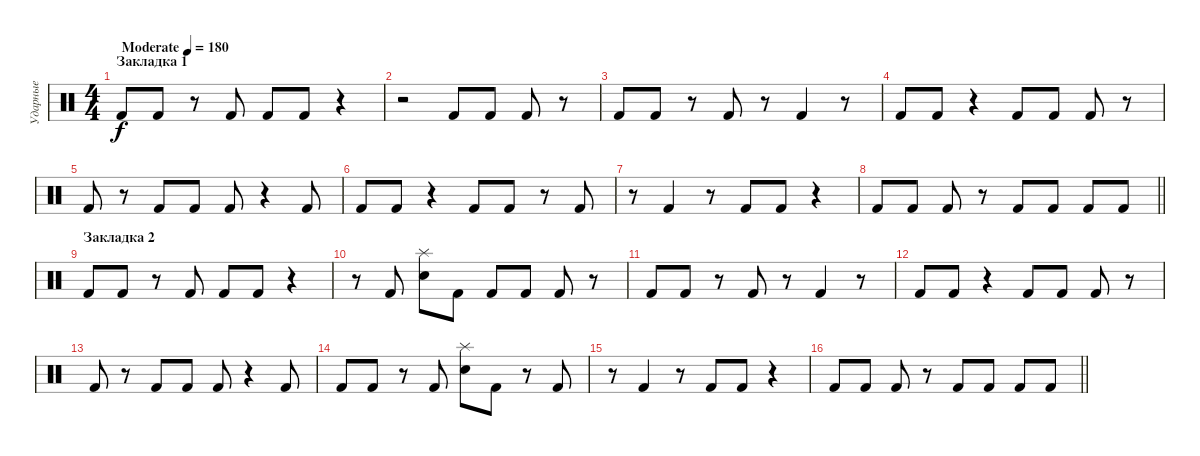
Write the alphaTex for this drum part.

\track ("Ударные" "Ударные") {instrument percussion}
\staff {score}
\articulation defaults
\ts (4 4)
\section ("" "Закладка 1")
\tempo (180 "Moderate")
\clef neutral
\ks c "Kick (hit) 2".8{dy f} "Kick (hit) 2".8
r.8 "Kick (hit) 2".8 "Kick (hit) 2".8 "Kick (hit) 2".8 r.4 |
r.2 "Kick (hit) 2".8 "Kick (hit) 2".8 "Kick (hit) 2".8 r.8 |
"Kick (hit) 2".8 "Kick (hit) 2".8 r.8 "Kick (hit) 2".8 r.8 "Kick (hit) 2".4 r.8 |
"Kick (hit) 2".8 "Kick (hit) 2".8 r.4 "Kick (hit) 2".8 "Kick (hit) 2".8 "Kick (hit) 2".8 r.8 |
"Kick (hit) 2".8 r.8 "Kick (hit) 2".8 "Kick (hit) 2".8 "Kick (hit) 2".8 r.4 "Kick (hit) 2".8 |
"Kick (hit) 2".8 "Kick (hit) 2".8 r.4 "Kick (hit) 2".8 "Kick (hit) 2".8 r.8 "Kick (hit) 2".8 |
r.8 "Kick (hit) 2".4 r.8 "Kick (hit) 2".8 "Kick (hit) 2".8 r.4 |
\barLineRight lightlight "Kick (hit) 2".8 "Kick (hit) 2".8 "Kick (hit) 2".8
r.8 "Kick (hit) 2".8 "Kick (hit) 2".8 "Kick (hit) 2".8 "Kick (hit) 2".8 |
\section ("" "Закладка 2")
"Kick (hit) 2".8 "Kick (hit) 2".8 r.8 "Kick (hit) 2".8 "Kick (hit) 2".8 "Kick (hit) 2".8 r.4 |
r.8 "Kick (hit) 2".8 ("Electric Snare (hit)" "Splash (hit)").8 "Kick (hit) 2".8 "Kick (hit) 2".8 "Kick (hit) 2".8 "Kick (hit) 2".8 r.8 |
"Kick (hit) 2".8 "Kick (hit) 2".8 r.8 "Kick (hit) 2".8 r.8 "Kick (hit) 2".4 r.8 |
"Kick (hit) 2".8 "Kick (hit) 2".8 r.4 "Kick (hit) 2".8 "Kick (hit) 2".8 "Kick (hit) 2".8 r.8 |
"Kick (hit) 2".8 r.8 "Kick (hit) 2".8 "Kick (hit) 2".8 "Kick (hit) 2".8 r.4 "Kick (hit) 2".8 |
"Kick (hit) 2".8 "Kick (hit) 2".8 r.8 "Kick (hit) 2".8 ("Electric Snare (hit)" "Splash (hit)").8 "Kick (hit) 2".8 r.8 "Kick (hit) 2".8 |
r.8 "Kick (hit) 2".4 r.8 "Kick (hit) 2".8 "Kick (hit) 2".8 r.4 |
\barLineRight lightlight "Kick (hit) 2".8 "Kick (hit) 2".8 "Kick (hit) 2".8
r.8 "Kick (hit) 2".8 "Kick (hit) 2".8 "Kick (hit) 2".8 "Kick (hit) 2".8
